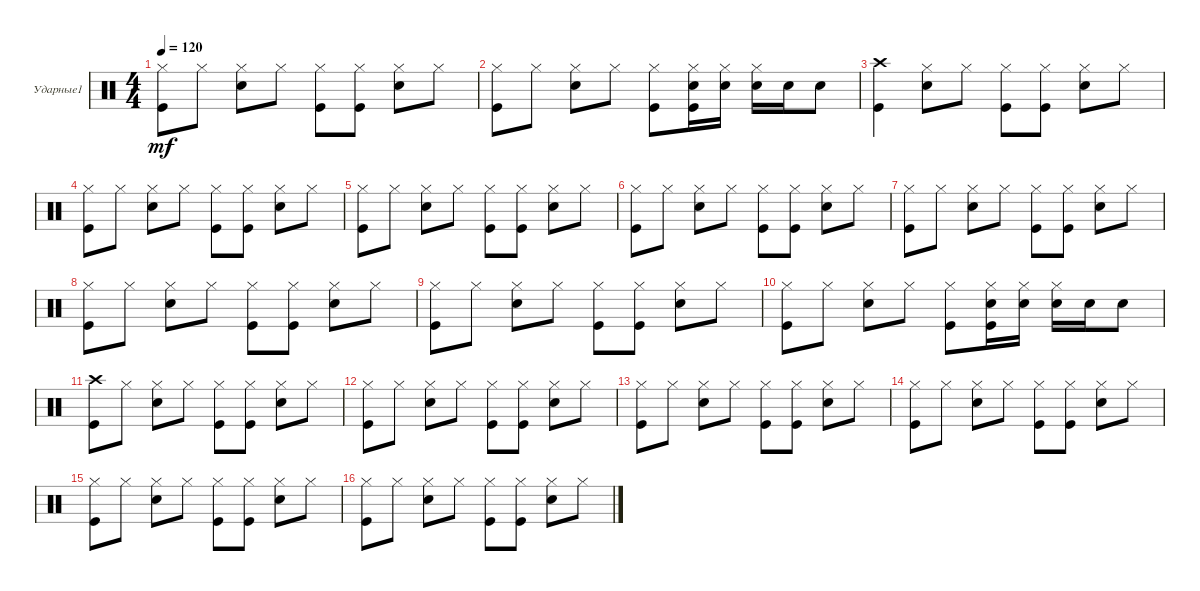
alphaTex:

\defaultSystemsLayout 4
\bracketExtendMode groupsimilarinstruments
\firstSystemTrackNameOrientation horizontal
\otherSystemsTrackNameOrientation horizontal
\track ("Е.Кулаков" "Ударные1") {instrument percussion}
\staff {score}
\articulation defaults
\ts (4 4)
\tempo 120
\clef neutral
\ks c
("Hi-Hat (closed)" "Kick (hit)").8{dy mf} "Hi-Hat (closed)".8 ("Hi-Hat (closed)" "Snare (hit) 2").8 "Hi-Hat (closed)".8 ("Hi-Hat (closed)" "Kick (hit)").8 ("Hi-Hat (closed)" "Kick (hit)").8 ("Hi-Hat (closed)" "Snare (hit) 2").8 "Hi-Hat (closed)".8 |
("Hi-Hat (closed)" "Kick (hit)").8 "Hi-Hat (closed)".8 ("Hi-Hat (closed)" "Snare (hit) 2").8 "Hi-Hat (closed)".8 ("Hi-Hat (closed)" "Kick (hit)").8 ("Hi-Hat (closed)" "Kick (hit)" "Snare (hit) 2").16 ("Hi-Hat (closed)" "Snare (hit) 2").16 ("Hi-Hat (closed)" "Snare (hit) 2").16 "Snare (hit) 2".16 "Snare (hit) 2".8 |
("Crash high (hit)" "Kick (hit)").4 ("Hi-Hat (closed)" "Snare (hit) 2").8 "Hi-Hat (closed)".8 ("Hi-Hat (closed)" "Kick (hit)").8 ("Hi-Hat (closed)" "Kick (hit)").8 ("Hi-Hat (closed)" "Snare (hit) 2").8 "Hi-Hat (closed)".8 |
("Hi-Hat (closed)" "Kick (hit)").8 "Hi-Hat (closed)".8 ("Hi-Hat (closed)" "Snare (hit) 2").8 "Hi-Hat (closed)".8 ("Hi-Hat (closed)" "Kick (hit)").8 ("Hi-Hat (closed)" "Kick (hit)").8 ("Hi-Hat (closed)" "Snare (hit) 2").8 "Hi-Hat (closed)".8 |
("Hi-Hat (closed)" "Kick (hit)").8 "Hi-Hat (closed)".8 ("Hi-Hat (closed)" "Snare (hit) 2").8 "Hi-Hat (closed)".8 ("Hi-Hat (closed)" "Kick (hit)").8 ("Hi-Hat (closed)" "Kick (hit)").8 ("Hi-Hat (closed)" "Snare (hit) 2").8 "Hi-Hat (closed)".8 |
("Hi-Hat (closed)" "Kick (hit)").8 "Hi-Hat (closed)".8 ("Hi-Hat (closed)" "Snare (hit) 2").8 "Hi-Hat (closed)".8 ("Hi-Hat (closed)" "Kick (hit)").8 ("Hi-Hat (closed)" "Kick (hit)").8 ("Hi-Hat (closed)" "Snare (hit) 2").8 "Hi-Hat (closed)".8 |
("Hi-Hat (closed)" "Kick (hit)").8 "Hi-Hat (closed)".8 ("Hi-Hat (closed)" "Snare (hit) 2").8 "Hi-Hat (closed)".8 ("Hi-Hat (closed)" "Kick (hit)").8 ("Hi-Hat (closed)" "Kick (hit)").8 ("Hi-Hat (closed)" "Snare (hit) 2").8 "Hi-Hat (closed)".8 |
("Hi-Hat (closed)" "Kick (hit)").8 "Hi-Hat (closed)".8 ("Hi-Hat (closed)" "Snare (hit) 2").8 "Hi-Hat (closed)".8 ("Hi-Hat (closed)" "Kick (hit)").8 ("Hi-Hat (closed)" "Kick (hit)").8 ("Hi-Hat (closed)" "Snare (hit) 2").8 "Hi-Hat (closed)".8 |
("Hi-Hat (closed)" "Kick (hit)").8 "Hi-Hat (closed)".8 ("Hi-Hat (closed)" "Snare (hit) 2").8 "Hi-Hat (closed)".8 ("Hi-Hat (closed)" "Kick (hit)").8 ("Hi-Hat (closed)" "Kick (hit)").8 ("Hi-Hat (closed)" "Snare (hit) 2").8 "Hi-Hat (closed)".8 |
("Hi-Hat (closed)" "Kick (hit)").8 "Hi-Hat (closed)".8 ("Hi-Hat (closed)" "Snare (hit) 2").8 "Hi-Hat (closed)".8 ("Hi-Hat (closed)" "Kick (hit)").8 ("Hi-Hat (closed)" "Kick (hit)" "Snare (hit) 2").16 ("Hi-Hat (closed)" "Snare (hit) 2").16 ("Hi-Hat (closed)" "Snare (hit) 2").16 "Snare (hit) 2".16 "Snare (hit) 2".8 |
("Kick (hit)" "Crash high (hit)").8 "Hi-Hat (closed)".8 ("Hi-Hat (closed)" "Snare (hit) 2").8 "Hi-Hat (closed)".8 ("Hi-Hat (closed)" "Kick (hit)").8 ("Hi-Hat (closed)" "Kick (hit)").8 ("Hi-Hat (closed)" "Snare (hit) 2").8 "Hi-Hat (closed)".8 |
("Hi-Hat (closed)" "Kick (hit)").8 "Hi-Hat (closed)".8 ("Hi-Hat (closed)" "Snare (hit) 2").8 "Hi-Hat (closed)".8 ("Hi-Hat (closed)" "Kick (hit)").8 ("Hi-Hat (closed)" "Kick (hit)").8 ("Hi-Hat (closed)" "Snare (hit) 2").8 "Hi-Hat (closed)".8 |
("Hi-Hat (closed)" "Kick (hit)").8 "Hi-Hat (closed)".8 ("Hi-Hat (closed)" "Snare (hit) 2").8 "Hi-Hat (closed)".8 ("Hi-Hat (closed)" "Kick (hit)").8 ("Hi-Hat (closed)" "Kick (hit)").8 ("Hi-Hat (closed)" "Snare (hit) 2").8 "Hi-Hat (closed)".8 |
("Hi-Hat (closed)" "Kick (hit)").8 "Hi-Hat (closed)".8 ("Hi-Hat (closed)" "Snare (hit) 2").8 "Hi-Hat (closed)".8 ("Hi-Hat (closed)" "Kick (hit)").8 ("Hi-Hat (closed)" "Kick (hit)").8 ("Hi-Hat (closed)" "Snare (hit) 2").8 "Hi-Hat (closed)".8 |
("Hi-Hat (closed)" "Kick (hit)").8 "Hi-Hat (closed)".8 ("Hi-Hat (closed)" "Snare (hit) 2").8 "Hi-Hat (closed)".8 ("Hi-Hat (closed)" "Kick (hit)").8 ("Hi-Hat (closed)" "Kick (hit)").8 ("Hi-Hat (closed)" "Snare (hit) 2").8 "Hi-Hat (closed)".8 |
("Hi-Hat (closed)" "Kick (hit)").8 "Hi-Hat (closed)".8 ("Hi-Hat (closed)" "Snare (hit) 2").8 "Hi-Hat (closed)".8 ("Hi-Hat (closed)" "Kick (hit)").8 ("Hi-Hat (closed)" "Kick (hit)").8 ("Hi-Hat (closed)" "Snare (hit) 2").8 "Hi-Hat (closed)".8
